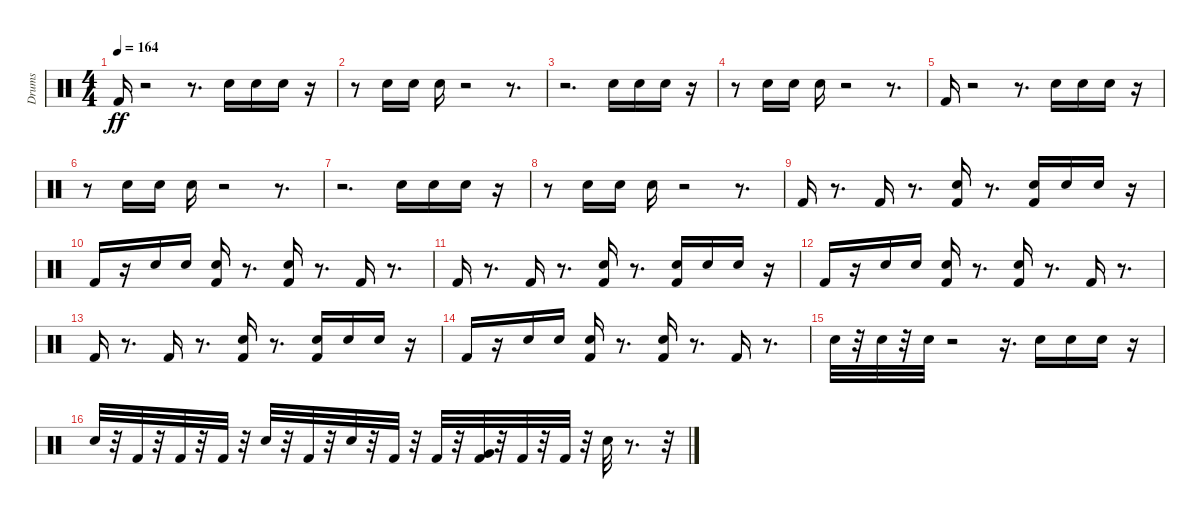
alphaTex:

\track ("Drums               " "Drums     ") {instrument percussion}
\staff {score}
\articulation defaults
\ts (4 4)
\tempo 164
\clef neutral
\ks c "Kick (hit) 2".16{dy ff}
r.2 r.8{d} "Electric Snare (hit)".16 "Electric Snare (hit)".16 "Electric Snare (hit)".16 r.16 |
r.8 "Electric Snare (hit)".16 "Electric Snare (hit)".16 "Electric Snare (hit)".16 r.2 r.8{d} |
r.2{d} "Electric Snare (hit)".16 "Electric Snare (hit)".16 "Electric Snare (hit)".16 r.16 |
r.8 "Electric Snare (hit)".16 "Electric Snare (hit)".16 "Electric Snare (hit)".16 r.2 r.8{d} |
"Kick (hit) 2".16 r.2 r.8{d} "Electric Snare (hit)".16 "Electric Snare (hit)".16 "Electric Snare (hit)".16 r.16 |
r.8 "Electric Snare (hit)".16 "Electric Snare (hit)".16 "Electric Snare (hit)".16 r.2 r.8{d} |
r.2{d} "Electric Snare (hit)".16 "Electric Snare (hit)".16 "Electric Snare (hit)".16 r.16 |
r.8 "Electric Snare (hit)".16 "Electric Snare (hit)".16 "Electric Snare (hit)".16 r.2 r.8{d} |
"Kick (hit) 2".16 r.8{d} "Kick (hit) 2".16 r.8{d} ("Electric Snare (hit)" "Kick (hit) 2").16 r.8{d} ("Kick (hit) 2" "Electric Snare (hit)").16 "Electric Snare (hit)".16 "Electric Snare (hit)".16 r.16 |
"Kick (hit) 2".16 r.16 "Electric Snare (hit)".16 "Electric Snare (hit)".16 ("Electric Snare (hit)" "Kick (hit) 2").16 r.8{d} ("Electric Snare (hit)" "Kick (hit) 2").16 r.8{d} "Kick (hit) 2".16 r.8{d} |
"Kick (hit) 2".16 r.8{d} "Kick (hit) 2".16 r.8{d} ("Electric Snare (hit)" "Kick (hit) 2").16 r.8{d} ("Kick (hit) 2" "Electric Snare (hit)").16 "Electric Snare (hit)".16 "Electric Snare (hit)".16 r.16 |
"Kick (hit) 2".16 r.16 "Electric Snare (hit)".16 "Electric Snare (hit)".16 ("Kick (hit) 2" "Electric Snare (hit)").16 r.8{d} ("Kick (hit) 2" "Electric Snare (hit)").16 r.8{d} "Kick (hit) 2".16 r.8{d} |
"Kick (hit) 2".16 r.8{d} "Kick (hit) 2".16 r.8{d} ("Kick (hit) 2" "Electric Snare (hit)").16 r.8{d} ("Electric Snare (hit)" "Kick (hit) 2").16 "Electric Snare (hit)".16 "Electric Snare (hit)".16 r.16 |
"Kick (hit) 2".16 r.16 "Electric Snare (hit)".16 "Electric Snare (hit)".16 ("Kick (hit) 2" "Electric Snare (hit)").16 r.8{d} ("Electric Snare (hit)" "Kick (hit) 2").16 r.8{d} "Kick (hit) 2".16 r.8{d} |
"Electric Snare (hit)".32 r.32 "Electric Snare (hit)".32 r.32 "Electric Snare (hit)".32 r.2 r.16{d} "Electric Snare (hit)".16 "Electric Snare (hit)".16 "Electric Snare (hit)".16 r.16 |
"Electric Snare (hit)".32 r.32 "Kick (hit) 2".32 r.32 "Kick (hit) 2".32 r.32 "Kick (hit) 2".32 r.32 "Electric Snare (hit)".32 r.32 "Kick (hit) 2".32 r.32 "Electric Snare (hit)".32 r.32 "Kick (hit) 2".32 r.32 "Kick (hit) 2".32 r.32 ("Kick (hit) 2" "Very Low Tom (hit)").32 r.32 "Kick (hit) 2".32 r.32 "Kick (hit) 2".32 r.32 "Electric Snare (hit)".32 r.8{d} r.32
